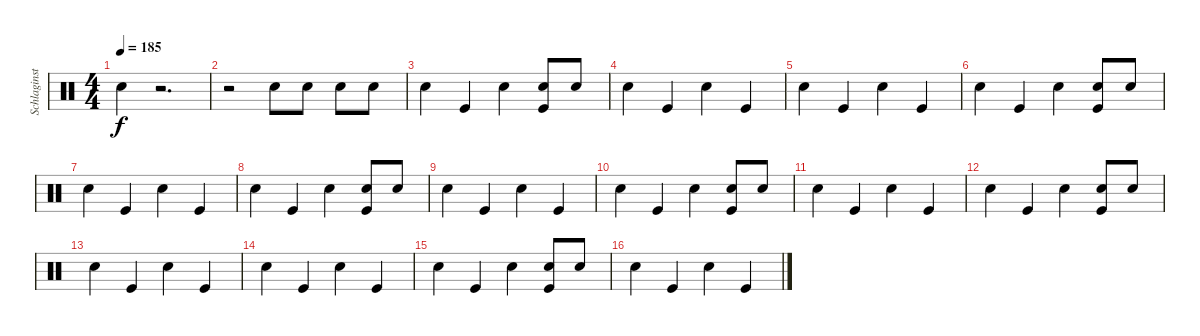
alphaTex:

\track ("Schlaginstrumente - Auswahl" "Schlaginst") {instrument percussion}
\staff {score}
\articulation defaults
\ts (4 4)
\tempo 185
\clef neutral
\ks c "Snare (hit) 2".4{dy f}
r.2{d} |
r.2 "Snare (hit) 2".8 "Snare (hit) 2".8 "Snare (hit) 2".8 "Snare (hit) 2".8 |
"Snare (hit) 2".4 "Kick (hit)".4 "Snare (hit) 2".4 ("Kick (hit)" "Snare (hit) 2").8 "Snare (hit) 2".8 |
"Snare (hit) 2".4 "Kick (hit)".4 "Snare (hit) 2".4 "Kick (hit)".4 |
"Snare (hit) 2".4 "Kick (hit)".4 "Snare (hit) 2".4 "Kick (hit)".4 |
"Snare (hit) 2".4 "Kick (hit)".4 "Snare (hit) 2".4 ("Kick (hit)" "Snare (hit) 2").8 "Snare (hit) 2".8 |
"Snare (hit) 2".4 "Kick (hit)".4 "Snare (hit) 2".4 "Kick (hit)".4 |
"Snare (hit) 2".4 "Kick (hit)".4 "Snare (hit) 2".4 ("Kick (hit)" "Snare (hit) 2").8 "Snare (hit) 2".8 |
"Snare (hit) 2".4 "Kick (hit)".4 "Snare (hit) 2".4 "Kick (hit)".4 |
"Snare (hit) 2".4 "Kick (hit)".4 "Snare (hit) 2".4 ("Kick (hit)" "Snare (hit) 2").8 "Snare (hit) 2".8 |
"Snare (hit) 2".4 "Kick (hit)".4 "Snare (hit) 2".4 "Kick (hit)".4 |
"Snare (hit) 2".4 "Kick (hit)".4 "Snare (hit) 2".4 ("Kick (hit)" "Snare (hit) 2").8 "Snare (hit) 2".8 |
"Snare (hit) 2".4 "Kick (hit)".4 "Snare (hit) 2".4 "Kick (hit)".4 |
"Snare (hit) 2".4 "Kick (hit)".4 "Snare (hit) 2".4 "Kick (hit)".4 |
"Snare (hit) 2".4 "Kick (hit)".4 "Snare (hit) 2".4 ("Kick (hit)" "Snare (hit) 2").8 "Snare (hit) 2".8 |
"Snare (hit) 2".4 "Kick (hit)".4 "Snare (hit) 2".4 "Kick (hit)".4
